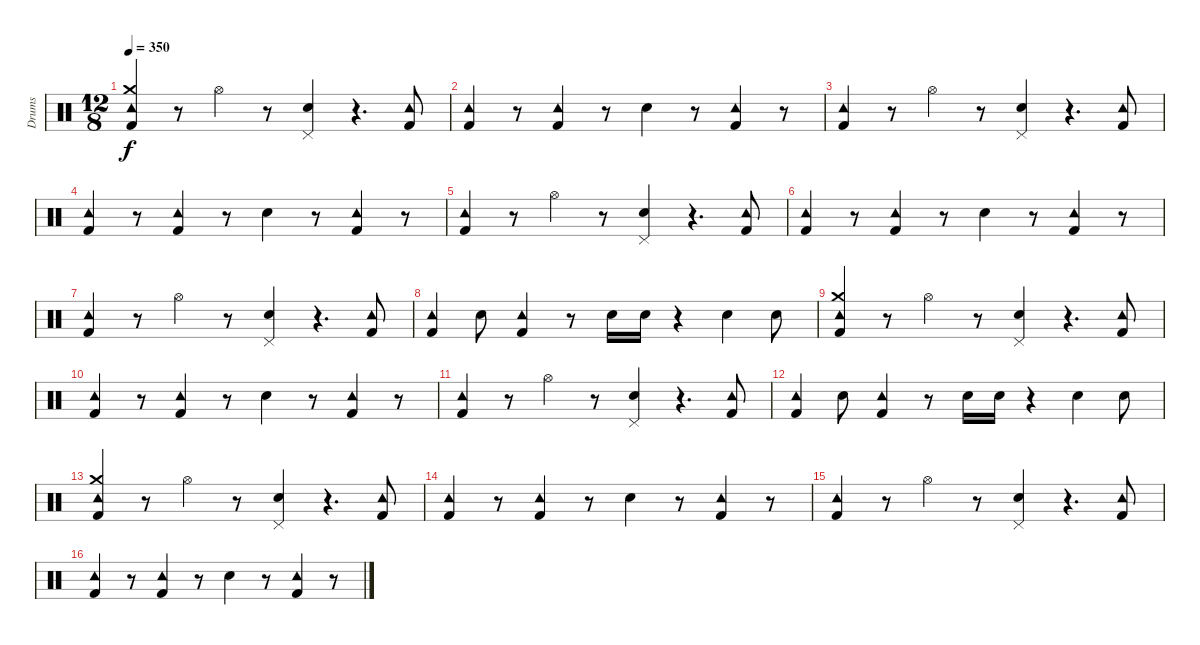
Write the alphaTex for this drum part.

\track ("Drums" "Drums") {instrument percussion}
\staff {score}
\articulation defaults
\ts (12 8)
\tempo 350
\clef neutral
\ks c
("Kick (hit) 2" "Crash medium (hit)" "Tambourine (hit)").4{dy f} r.8 "Hi-Hat (open)".4 r.8 ("Snare (hit) 2" "Pedal Hi-Hat (hit)").4 r.4{d} ("Kick (hit) 2" "Tambourine (hit)").8 |
("Kick (hit) 2" "Tambourine (hit)").4 r.8 ("Kick (hit) 2" "Tambourine (hit)").4 r.8 "Snare (hit) 2".4 r.8 ("Kick (hit) 2" "Tambourine (hit)").4 r.8 |
("Kick (hit) 2" "Tambourine (hit)").4 r.8 "Hi-Hat (open)".4 r.8 ("Snare (hit) 2" "Pedal Hi-Hat (hit)").4 r.4{d} ("Kick (hit) 2" "Tambourine (hit)").8 |
("Kick (hit) 2" "Tambourine (hit)").4 r.8 ("Kick (hit) 2" "Tambourine (hit)").4 r.8 "Snare (hit) 2".4 r.8 ("Kick (hit) 2" "Tambourine (hit)").4 r.8 |
("Kick (hit) 2" "Tambourine (hit)").4 r.8 "Hi-Hat (open)".4 r.8 ("Snare (hit) 2" "Pedal Hi-Hat (hit)").4 r.4{d} ("Kick (hit) 2" "Tambourine (hit)").8 |
("Kick (hit) 2" "Tambourine (hit)").4 r.8 ("Kick (hit) 2" "Tambourine (hit)").4 r.8 "Snare (hit) 2".4 r.8 ("Kick (hit) 2" "Tambourine (hit)").4 r.8 |
("Kick (hit) 2" "Tambourine (hit)").4 r.8 "Hi-Hat (open)".4 r.8 ("Snare (hit) 2" "Pedal Hi-Hat (hit)").4 r.4{d} ("Kick (hit) 2" "Tambourine (hit)").8 |
("Kick (hit) 2" "Tambourine (hit)").4 "Snare (hit) 2".8 ("Kick (hit) 2" "Tambourine (hit)").4 r.8 "Snare (hit) 2".16 "Snare (hit) 2".16 r.4 "Snare (hit) 2".4 "Snare (hit) 2".8 |
("Kick (hit) 2" "Tambourine (hit)" "Crash medium (hit)").4 r.8 "Hi-Hat (open)".4 r.8 ("Snare (hit) 2" "Pedal Hi-Hat (hit)").4 r.4{d} ("Kick (hit) 2" "Tambourine (hit)").8 |
("Kick (hit) 2" "Tambourine (hit)").4 r.8 ("Kick (hit) 2" "Tambourine (hit)").4 r.8 "Snare (hit) 2".4 r.8 ("Kick (hit) 2" "Tambourine (hit)").4 r.8 |
("Kick (hit) 2" "Tambourine (hit)").4 r.8 "Hi-Hat (open)".4 r.8 ("Snare (hit) 2" "Pedal Hi-Hat (hit)").4 r.4{d} ("Kick (hit) 2" "Tambourine (hit)").8 |
("Kick (hit) 2" "Tambourine (hit)").4 "Snare (hit) 2".8 ("Kick (hit) 2" "Tambourine (hit)").4 r.8 "Snare (hit) 2".16 "Snare (hit) 2".16 r.4 "Snare (hit) 2".4 "Snare (hit) 2".8 |
("Kick (hit) 2" "Crash medium (hit)" "Tambourine (hit)").4 r.8 "Hi-Hat (open)".4 r.8 ("Snare (hit) 2" "Pedal Hi-Hat (hit)").4 r.4{d} ("Kick (hit) 2" "Tambourine (hit)").8 |
("Kick (hit) 2" "Tambourine (hit)").4 r.8 ("Kick (hit) 2" "Tambourine (hit)").4 r.8 "Snare (hit) 2".4 r.8 ("Kick (hit) 2" "Tambourine (hit)").4 r.8 |
("Kick (hit) 2" "Tambourine (hit)").4 r.8 "Hi-Hat (open)".4 r.8 ("Snare (hit) 2" "Pedal Hi-Hat (hit)").4 r.4{d} ("Kick (hit) 2" "Tambourine (hit)").8 |
("Kick (hit) 2" "Tambourine (hit)").4 r.8 ("Kick (hit) 2" "Tambourine (hit)").4 r.8 "Snare (hit) 2".4 r.8 ("Kick (hit) 2" "Tambourine (hit)").4 r.8
